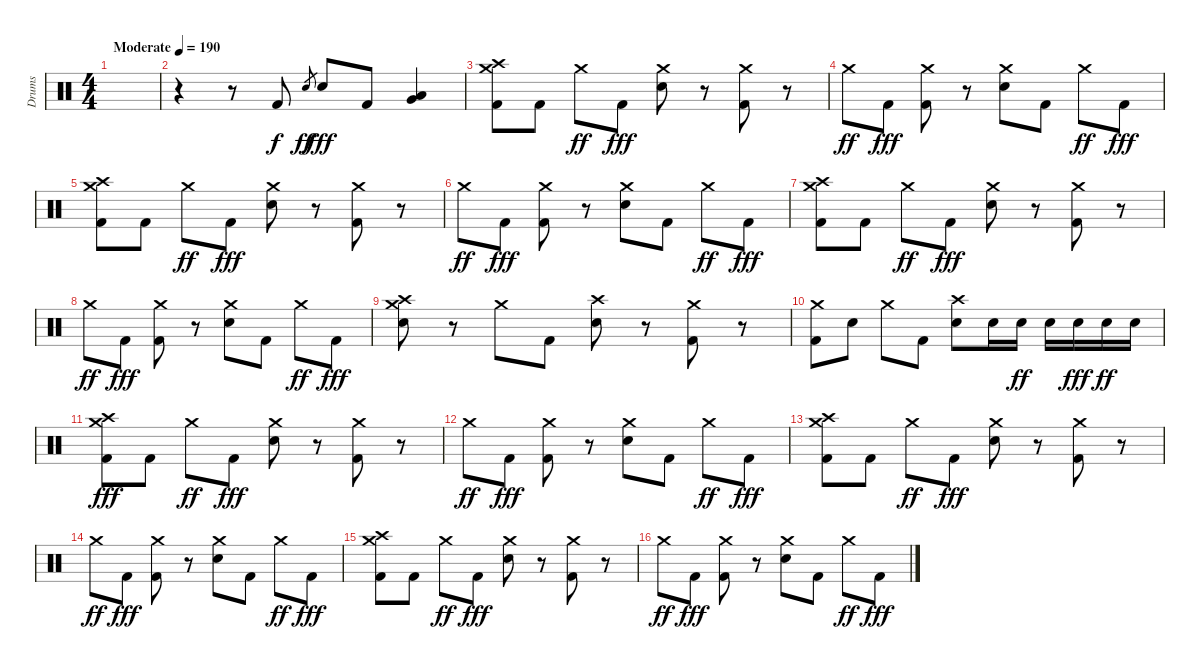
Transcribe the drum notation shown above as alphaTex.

\track ("Drums" "Drums") {instrument percussion}
\staff {score}
\articulation defaults
\ts (4 4)
\tempo (190 "Moderate")
\clef neutral
\ks c
|
r.4 r.8 "Kick (hit) 2".8 "Electric Snare (hit)".8{gr dy ff} "Electric Snare (hit)".8{dy fff} "Kick (hit) 2".8 ("Low Tom (hit)" "Very Low Tom (hit)").4 |
("Crash medium (hit)" "Crash high (hit)" "Kick (hit) 2").8 "Kick (hit) 2".8 "Crash medium (hit)".8{dy ff} "Kick (hit) 2".8{dy fff} ("Crash medium (hit)" "Electric Snare (hit)").8 r.8 ("Crash medium (hit)" "Kick (hit) 2").8 r.8 |
"Crash medium (hit)".8{dy ff} "Kick (hit) 2".8{dy fff} ("Crash medium (hit)" "Kick (hit) 2").8 r.8 ("Crash medium (hit)" "Electric Snare (hit)").8 "Kick (hit) 2".8 "Crash medium (hit)".8{dy ff} "Kick (hit) 2".8{dy fff} |
("Crash medium (hit)" "Crash high (hit)" "Kick (hit) 2").8 "Kick (hit) 2".8 "Crash medium (hit)".8{dy ff} "Kick (hit) 2".8{dy fff} ("Crash medium (hit)" "Electric Snare (hit)").8 r.8 ("Crash medium (hit)" "Kick (hit) 2").8 r.8 |
"Crash medium (hit)".8{dy ff} "Kick (hit) 2".8{dy fff} ("Crash medium (hit)" "Kick (hit) 2").8 r.8 ("Crash medium (hit)" "Electric Snare (hit)").8 "Kick (hit) 2".8 "Crash medium (hit)".8{dy ff} "Kick (hit) 2".8{dy fff} |
("Crash medium (hit)" "Crash high (hit)" "Kick (hit) 2").8 "Kick (hit) 2".8 "Crash medium (hit)".8{dy ff} "Kick (hit) 2".8{dy fff} ("Crash medium (hit)" "Electric Snare (hit)").8 r.8 ("Crash medium (hit)" "Kick (hit) 2").8 r.8 |
"Crash medium (hit)".8{dy ff} "Kick (hit) 2".8{dy fff} ("Crash medium (hit)" "Kick (hit) 2").8 r.8 ("Crash medium (hit)" "Electric Snare (hit)").8 "Kick (hit) 2".8 "Crash medium (hit)".8{dy ff} "Kick (hit) 2".8{dy fff} |
("Crash medium (hit)" "Crash high (hit)" "Electric Snare (hit)").8 r.8 "Crash medium (hit)".8 "Kick (hit) 2".8 ("Crash high (hit)" "Electric Snare (hit)").8 r.8 ("Crash medium (hit)" "Kick (hit) 2").8 r.8 |
("Crash medium (hit)" "Kick (hit) 2").8 "Electric Snare (hit)".8 "Crash medium (hit)".8 "Kick (hit) 2".8 ("Crash high (hit)" "Electric Snare (hit)").8 "Electric Snare (hit)".16 "Electric Snare (hit)".16{dy ff} "Electric Snare (hit)".16 "Electric Snare (hit)".16{dy fff} "Electric Snare (hit)".16{dy ff} "Electric Snare (hit)".16 |
("Crash medium (hit)" "Crash high (hit)" "Kick (hit) 2").8{dy fff} "Kick (hit) 2".8 "Crash medium (hit)".8{dy ff} "Kick (hit) 2".8{dy fff} ("Crash medium (hit)" "Electric Snare (hit)").8 r.8 ("Crash medium (hit)" "Kick (hit) 2").8 r.8 |
"Crash medium (hit)".8{dy ff} "Kick (hit) 2".8{dy fff} ("Crash medium (hit)" "Kick (hit) 2").8 r.8 ("Crash medium (hit)" "Electric Snare (hit)").8 "Kick (hit) 2".8 "Crash medium (hit)".8{dy ff} "Kick (hit) 2".8{dy fff} |
("Crash medium (hit)" "Crash high (hit)" "Kick (hit) 2").8 "Kick (hit) 2".8 "Crash medium (hit)".8{dy ff} "Kick (hit) 2".8{dy fff} ("Crash medium (hit)" "Electric Snare (hit)").8 r.8 ("Crash medium (hit)" "Kick (hit) 2").8 r.8 |
"Crash medium (hit)".8{dy ff} "Kick (hit) 2".8{dy fff} ("Crash medium (hit)" "Kick (hit) 2").8 r.8 ("Crash medium (hit)" "Electric Snare (hit)").8 "Kick (hit) 2".8 "Crash medium (hit)".8{dy ff} "Kick (hit) 2".8{dy fff} |
("Crash medium (hit)" "Crash high (hit)" "Kick (hit) 2").8 "Kick (hit) 2".8 "Crash medium (hit)".8{dy ff} "Kick (hit) 2".8{dy fff} ("Crash medium (hit)" "Electric Snare (hit)").8 r.8 ("Crash medium (hit)" "Kick (hit) 2").8 r.8 |
"Crash medium (hit)".8{dy ff} "Kick (hit) 2".8{dy fff} ("Crash medium (hit)" "Kick (hit) 2").8 r.8 ("Crash medium (hit)" "Electric Snare (hit)").8 "Kick (hit) 2".8 "Crash medium (hit)".8{dy ff} "Kick (hit) 2".8{dy fff}
